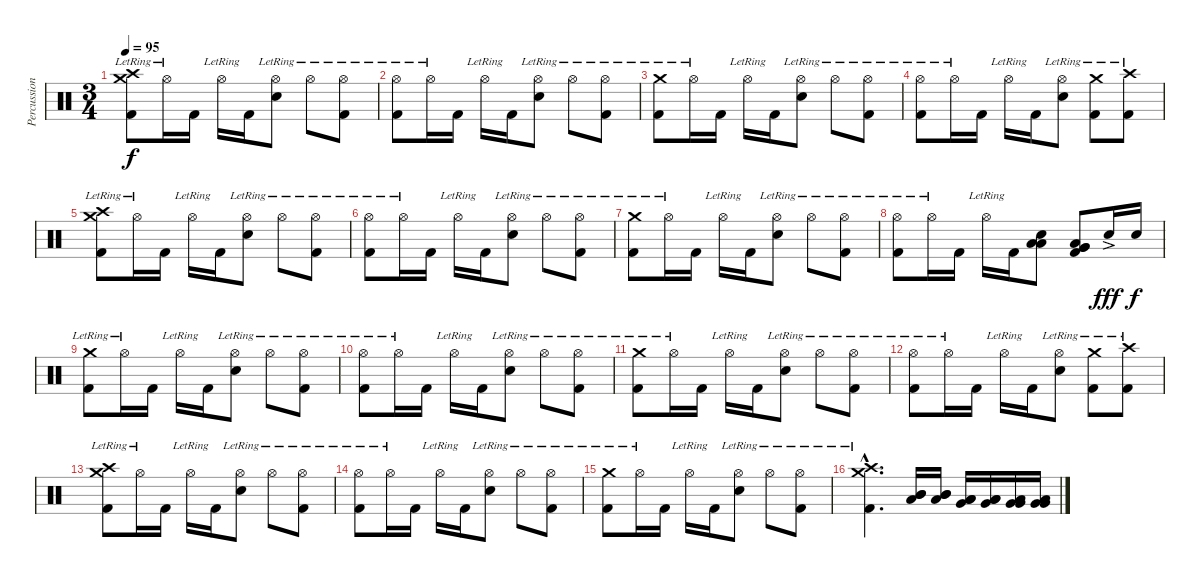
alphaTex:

\track ("Percussion I" "Percussion") {instrument percussion}
\staff {score}
\articulation defaults
\ts (3 4)
\tempo 95
\clef neutral
\ks c
("Crash medium (hit)"{lr} "Crash high (hit)"{lr} "Kick (hit) 2").8{dy f} "Hi-Hat (open)"{lr}.16 "Kick (hit) 2".16 "Hi-Hat (open)"{lr}.16 "Kick (hit) 2".16 ("Hi-Hat (open)"{lr} "Electric Snare (hit)").8 "Hi-Hat (open)"{lr}.8 ("Hi-Hat (open)"{lr} "Kick (hit) 2").8 |
("Hi-Hat (open)"{lr} "Kick (hit) 2").8 "Hi-Hat (open)"{lr}.16 "Kick (hit) 2".16 "Hi-Hat (open)"{lr}.16 "Kick (hit) 2".16 ("Hi-Hat (open)"{lr} "Electric Snare (hit)").8 "Hi-Hat (open)"{lr}.8 ("Hi-Hat (open)"{lr} "Kick (hit) 2").8 |
("Crash medium (hit)"{lr} "Kick (hit) 2").8 "Hi-Hat (open)"{lr}.16 "Kick (hit) 2".16 "Hi-Hat (open)"{lr}.16 "Kick (hit) 2".16 ("Hi-Hat (open)"{lr} "Electric Snare (hit)").8 "Hi-Hat (open)"{lr}.8 ("Hi-Hat (open)"{lr} "Kick (hit) 2").8 |
("Hi-Hat (open)"{lr} "Kick (hit) 2").8 "Hi-Hat (open)"{lr}.16 "Kick (hit) 2".16 "Hi-Hat (open)"{lr}.16 "Kick (hit) 2".16 ("Hi-Hat (open)"{lr} "Electric Snare (hit)").8 ("Crash medium (hit)"{lr} "Kick (hit) 2").8 ("Crash high (hit)"{lr} "Kick (hit) 2").8 |
("Crash medium (hit)"{lr} "Crash high (hit)"{lr} "Kick (hit) 2").8 "Hi-Hat (open)"{lr}.16 "Kick (hit) 2".16 "Hi-Hat (open)"{lr}.16 "Kick (hit) 2".16 ("Hi-Hat (open)"{lr} "Electric Snare (hit)").8 "Hi-Hat (open)"{lr}.8 ("Hi-Hat (open)"{lr} "Kick (hit) 2").8 |
("Hi-Hat (open)"{lr} "Kick (hit) 2").8 "Hi-Hat (open)"{lr}.16 "Kick (hit) 2".16 "Hi-Hat (open)"{lr}.16 "Kick (hit) 2".16 ("Hi-Hat (open)"{lr} "Electric Snare (hit)").8 "Hi-Hat (open)"{lr}.8 ("Hi-Hat (open)"{lr} "Kick (hit) 2").8 |
("Crash medium (hit)"{lr} "Kick (hit) 2").8 "Hi-Hat (open)"{lr}.16 "Kick (hit) 2".16 "Hi-Hat (open)"{lr}.16 "Kick (hit) 2".16 ("Hi-Hat (open)"{lr} "Electric Snare (hit)").8 "Hi-Hat (open)"{lr}.8 ("Hi-Hat (open)"{lr} "Kick (hit) 2").8 |
("Hi-Hat (open)"{lr} "Kick (hit) 2").8 "Hi-Hat (open)"{lr}.16 "Kick (hit) 2".16 "Hi-Hat (open)"{lr}.16 "Kick (hit) 2".16 ("Electric Snare (hit)" "Low Floor Tom (hit)" "Low Floor Tom (hit)").8 ("Very Low Tom (hit)" "Very Low Tom (hit)" "Low Floor Tom (hit)" "Kick (hit) 2").8 "Electric Snare (hit)"{ac}.16{dy fff} "Electric Snare (hit)".16{dy f} |
("Crash medium (hit)"{lr} "Kick (hit) 2").8 "Hi-Hat (open)"{lr}.16 "Kick (hit) 2".16 "Hi-Hat (open)"{lr}.16 "Kick (hit) 2".16 ("Hi-Hat (open)"{lr} "Electric Snare (hit)").8 "Hi-Hat (open)"{lr}.8 ("Hi-Hat (open)"{lr} "Kick (hit) 2").8 |
("Hi-Hat (open)"{lr} "Kick (hit) 2").8 "Hi-Hat (open)"{lr}.16 "Kick (hit) 2".16 "Hi-Hat (open)"{lr}.16 "Kick (hit) 2".16 ("Hi-Hat (open)"{lr} "Electric Snare (hit)").8 "Hi-Hat (open)"{lr}.8 ("Hi-Hat (open)"{lr} "Kick (hit) 2").8 |
("Crash medium (hit)"{lr} "Kick (hit) 2").8 "Hi-Hat (open)"{lr}.16 "Kick (hit) 2".16 "Hi-Hat (open)"{lr}.16 "Kick (hit) 2".16 ("Hi-Hat (open)"{lr} "Electric Snare (hit)").8 "Hi-Hat (open)"{lr}.8 ("Hi-Hat (open)"{lr} "Kick (hit) 2").8 |
("Hi-Hat (open)"{lr} "Kick (hit) 2").8 "Hi-Hat (open)"{lr}.16 "Kick (hit) 2".16 "Hi-Hat (open)"{lr}.16 "Kick (hit) 2".16 ("Hi-Hat (open)"{lr} "Electric Snare (hit)").8 ("Crash medium (hit)"{lr} "Kick (hit) 2").8 ("Crash high (hit)"{lr} "Kick (hit) 2").8 |
("Crash medium (hit)"{lr} "Crash high (hit)"{lr} "Kick (hit) 2").8 "Hi-Hat (open)"{lr}.16 "Kick (hit) 2".16 "Hi-Hat (open)"{lr}.16 "Kick (hit) 2".16 ("Hi-Hat (open)"{lr} "Electric Snare (hit)").8 "Hi-Hat (open)"{lr}.8 ("Hi-Hat (open)"{lr} "Kick (hit) 2").8 |
("Hi-Hat (open)"{lr} "Kick (hit) 2").8 "Hi-Hat (open)"{lr}.16 "Kick (hit) 2".16 "Hi-Hat (open)"{lr}.16 "Kick (hit) 2".16 ("Hi-Hat (open)"{lr} "Electric Snare (hit)").8 "Hi-Hat (open)"{lr}.8 ("Hi-Hat (open)"{lr} "Kick (hit) 2").8 |
("Crash medium (hit)"{lr} "Kick (hit) 2").8 "Hi-Hat (open)"{lr}.16 "Kick (hit) 2".16 "Hi-Hat (open)"{lr}.16 "Kick (hit) 2".16 ("Hi-Hat (open)"{lr} "Electric Snare (hit)").8 "Hi-Hat (open)"{lr}.8 ("Hi-Hat (open)"{lr} "Kick (hit) 2").8 |
("Crash high (hit)"{hac lr} "Crash medium (hit)"{hac lr} "Kick (hit) 2"{hac}).4{d} ("Mid Tom (hit)" "Mid Tom (hit)" "Low Tom (hit)").16 ("Mid Tom (hit)" "Mid Tom (hit)" "Low Tom (hit)").16 ("Low Tom (hit)" "Low Tom (hit)" "Very Low Tom (hit)").16 ("Low Tom (hit)" "Low Tom (hit)" "Very Low Tom (hit)").16 ("Very Low Tom (hit)" "Very Low Tom (hit)" "Low Floor Tom (hit)").16 ("Very Low Tom (hit)" "Very Low Tom (hit)" "Low Floor Tom (hit)").16
